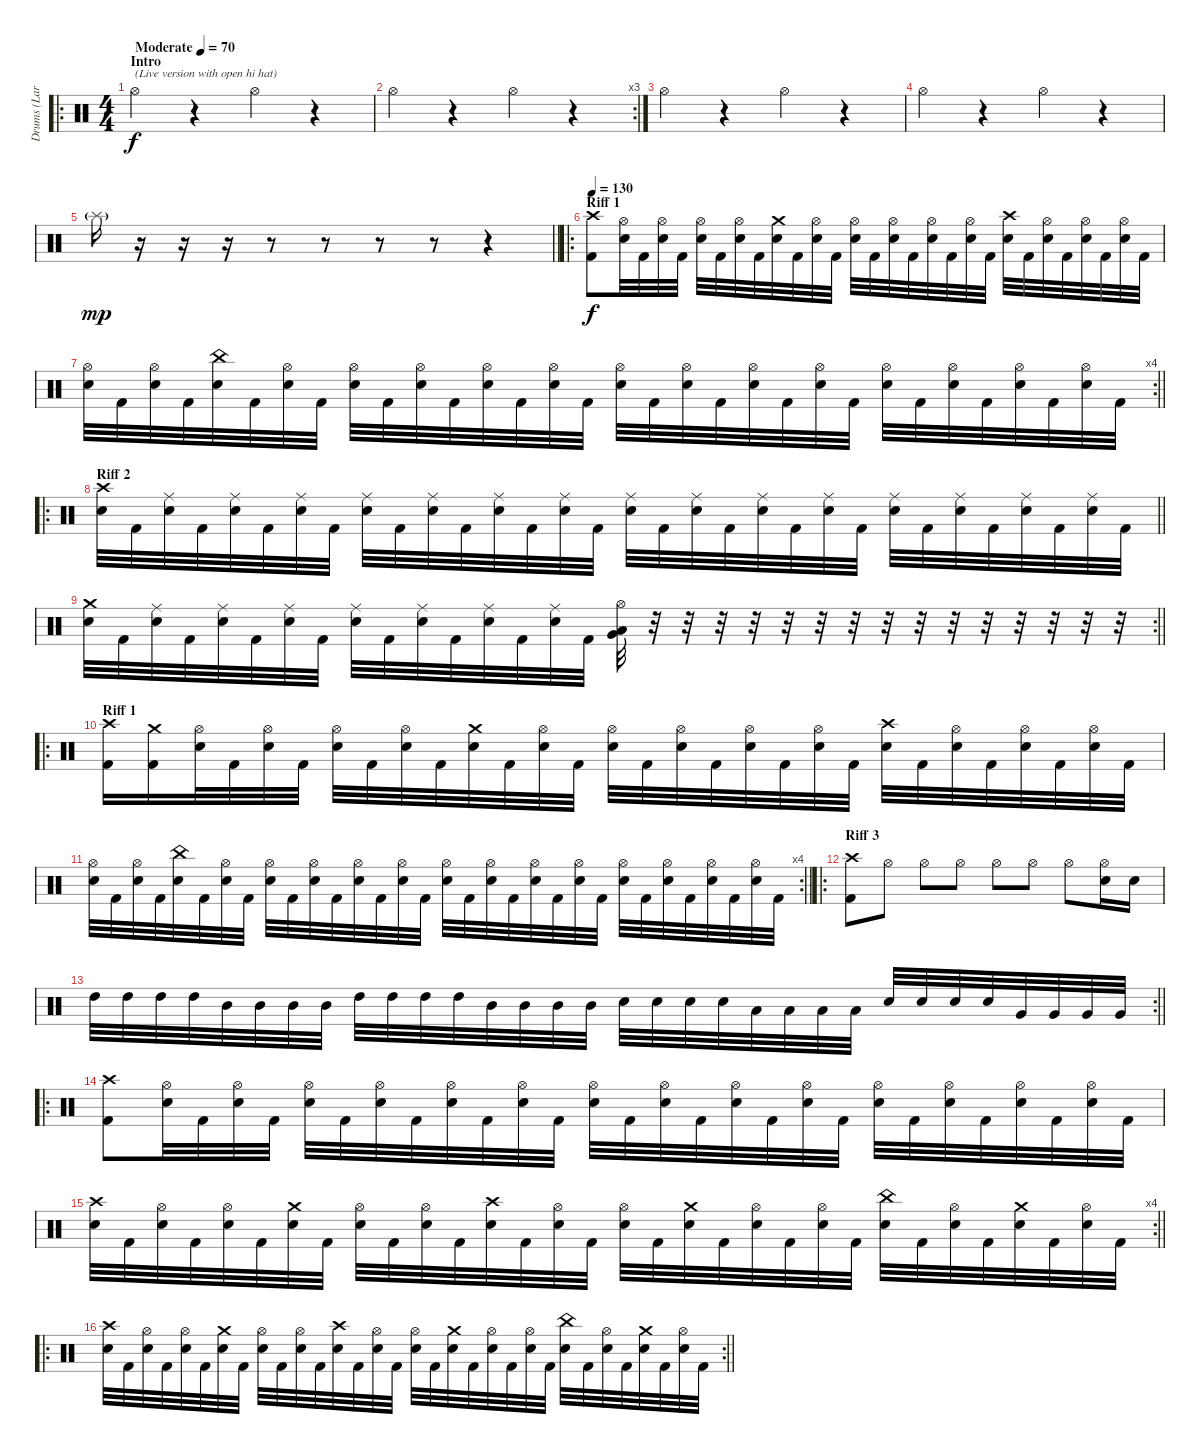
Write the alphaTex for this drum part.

\track ("Drums (Lars)" "Drums (Lar") {instrument percussion}
\staff {score}
\articulation defaults
\ro
\ts (4 4)
\section ("" "Intro")
\tempo (70 "Moderate")
\clef neutral
\ks c "Hi-Hat (open)".4{txt "(Live version with open hi hat)" dy f volume 0}
r.4 "Hi-Hat (open)".4 r.4 |
\rc 3 "Hi-Hat (open)".4
r.4 "Hi-Hat (open)".4 r.4 |
"Hi-Hat (open)".4 r.4 "Hi-Hat (open)".4 r.4 |
"Hi-Hat (open)".4 r.4 "Hi-Hat (open)".4 r.4 |
\barLineRight lightlight "Splash (hit)"{g}.16{dy mp volume 13}
r.16 r.16 r.16 r.8 r.8 r.8 r.8 r.4 |
\ro
\section ("" "Riff 1")
\tempo 130
("Crash high (hit)" "Kick (hit) 2").8{dy f} ("Hi-Hat (open)" "Snare (hit) 2").32 "Kick (hit) 2".32 ("Hi-Hat (open)" "Snare (hit) 2").32 "Kick (hit) 2".32 ("Hi-Hat (open)" "Snare (hit) 2").32 "Kick (hit) 2".32 ("Hi-Hat (open)" "Snare (hit) 2").32 "Kick (hit) 2".32 ("Crash medium (hit)" "Snare (hit) 2").32 "Kick (hit) 2".32 ("Hi-Hat (open)" "Snare (hit) 2").32 "Kick (hit) 2".32 ("Hi-Hat (open)" "Snare (hit) 2").32 "Kick (hit) 2".32 ("Hi-Hat (open)" "Snare (hit) 2").32 "Kick (hit) 2".32 ("Hi-Hat (open)" "Snare (hit) 2").32 "Kick (hit) 2".32 ("Hi-Hat (open)" "Snare (hit) 2").32 "Kick (hit) 2".32 ("Crash high (hit)" "Snare (hit) 2").32 "Kick (hit) 2".32 ("Hi-Hat (open)" "Snare (hit) 2").32 "Kick (hit) 2".32 ("Hi-Hat (open)" "Snare (hit) 2").32 "Kick (hit) 2".32 ("Hi-Hat (open)" "Snare (hit) 2").32 "Kick (hit) 2".32 |
\rc 4
\barLineRight lightlight
("Hi-Hat (open)" "Snare (hit) 2").32 "Kick (hit) 2".32 ("Hi-Hat (open)" "Snare (hit) 2").32 "Kick (hit) 2".32 ("China (hit)" "Snare (hit) 2").32 "Kick (hit) 2".32 ("Hi-Hat (open)" "Snare (hit) 2").32 "Kick (hit) 2".32 ("Hi-Hat (open)" "Snare (hit) 2").32 "Kick (hit) 2".32 ("Hi-Hat (open)" "Snare (hit) 2").32 "Kick (hit) 2".32 ("Hi-Hat (open)" "Snare (hit) 2").32 "Kick (hit) 2".32 ("Hi-Hat (open)" "Snare (hit) 2").32 "Kick (hit) 2".32 ("Hi-Hat (open)" "Snare (hit) 2").32 "Kick (hit) 2".32 ("Hi-Hat (open)" "Snare (hit) 2").32 "Kick (hit) 2".32 ("Hi-Hat (open)" "Snare (hit) 2").32 "Kick (hit) 2".32 ("Hi-Hat (open)" "Snare (hit) 2").32 "Kick (hit) 2".32 ("Hi-Hat (open)" "Snare (hit) 2").32 "Kick (hit) 2".32 ("Hi-Hat (open)" "Snare (hit) 2").32 "Kick (hit) 2".32 ("Hi-Hat (open)" "Snare (hit) 2").32 "Kick (hit) 2".32 ("Hi-Hat (open)" "Snare (hit) 2").32 "Kick (hit) 2".32 |
\ro
\section ("" "Riff 2")
\barLineRight lightlight
("Crash high (hit)" "Snare (hit) 2").32 "Kick (hit) 2".32 ("Ride (middle)" "Snare (hit) 2").32 "Kick (hit) 2".32 ("Ride (middle)" "Snare (hit) 2").32 "Kick (hit) 2".32 ("Ride (middle)" "Snare (hit) 2").32 "Kick (hit) 2".32 ("Ride (middle)" "Snare (hit) 2").32 "Kick (hit) 2".32 ("Ride (middle)" "Snare (hit) 2").32 "Kick (hit) 2".32 ("Ride (middle)" "Snare (hit) 2").32 "Kick (hit) 2".32 ("Ride (middle)" "Snare (hit) 2").32 "Kick (hit) 2".32 ("Ride (middle)" "Snare (hit) 2").32 "Kick (hit) 2".32 ("Ride (middle)" "Snare (hit) 2").32 "Kick (hit) 2".32 ("Ride (middle)" "Snare (hit) 2").32 "Kick (hit) 2".32 ("Ride (middle)" "Snare (hit) 2").32 "Kick (hit) 2".32 ("Ride (middle)" "Snare (hit) 2").32 "Kick (hit) 2".32 ("Ride (middle)" "Snare (hit) 2").32 "Kick (hit) 2".32 ("Ride (middle)" "Snare (hit) 2").32 "Kick (hit) 2".32 ("Ride (middle)" "Snare (hit) 2").32 "Kick (hit) 2".32 |
\rc 2
\barLineRight lightlight
("Crash medium (hit)" "Snare (hit) 2").32 "Kick (hit) 2".32 ("Ride (middle)" "Snare (hit) 2").32 "Kick (hit) 2".32 ("Ride (middle)" "Snare (hit) 2").32 "Kick (hit) 2".32 ("Ride (middle)" "Snare (hit) 2").32 "Kick (hit) 2".32 ("Ride (middle)" "Snare (hit) 2").32 "Kick (hit) 2".32 ("Ride (middle)" "Snare (hit) 2").32 "Kick (hit) 2".32 ("Ride (middle)" "Snare (hit) 2").32 "Kick (hit) 2".32 ("Ride (middle)" "Snare (hit) 2").32 "Kick (hit) 2".32 ("Hi-Hat (open)" "Very Low Tom (hit)" "Low Floor Tom (hit)").32 r.32 r.32 r.32 r.32 r.32 r.32 r.32 r.32 r.32 r.32 r.32 r.32 r.32 r.32 r.32 |
\ro
\section ("" "Riff 1")
("Crash high (hit)" "Kick (hit) 2").16 ("Crash medium (hit)" "Kick (hit) 2").16 ("Hi-Hat (open)" "Snare (hit) 2").32 "Kick (hit) 2".32 ("Hi-Hat (open)" "Snare (hit) 2").32 "Kick (hit) 2".32 ("Hi-Hat (open)" "Snare (hit) 2").32 "Kick (hit) 2".32 ("Hi-Hat (open)" "Snare (hit) 2").32 "Kick (hit) 2".32 ("Crash medium (hit)" "Snare (hit) 2").32 "Kick (hit) 2".32 ("Hi-Hat (open)" "Snare (hit) 2").32 "Kick (hit) 2".32 ("Hi-Hat (open)" "Snare (hit) 2").32 "Kick (hit) 2".32 ("Hi-Hat (open)" "Snare (hit) 2").32 "Kick (hit) 2".32 ("Hi-Hat (open)" "Snare (hit) 2").32 "Kick (hit) 2".32 ("Hi-Hat (open)" "Snare (hit) 2").32 "Kick (hit) 2".32 ("Crash high (hit)" "Snare (hit) 2").32 "Kick (hit) 2".32 ("Hi-Hat (open)" "Snare (hit) 2").32 "Kick (hit) 2".32 ("Hi-Hat (open)" "Snare (hit) 2").32 "Kick (hit) 2".32 ("Hi-Hat (open)" "Snare (hit) 2").32 "Kick (hit) 2".32 |
\rc 4
\barLineRight lightlight
("Hi-Hat (open)" "Snare (hit) 2").32 "Kick (hit) 2".32 ("Hi-Hat (open)" "Snare (hit) 2").32 "Kick (hit) 2".32 ("China (hit)" "Snare (hit) 2").32 "Kick (hit) 2".32 ("Hi-Hat (open)" "Snare (hit) 2").32 "Kick (hit) 2".32 ("Hi-Hat (open)" "Snare (hit) 2").32 "Kick (hit) 2".32 ("Hi-Hat (open)" "Snare (hit) 2").32 "Kick (hit) 2".32 ("Hi-Hat (open)" "Snare (hit) 2").32 "Kick (hit) 2".32 ("Hi-Hat (open)" "Snare (hit) 2").32 "Kick (hit) 2".32 ("Hi-Hat (open)" "Snare (hit) 2").32 "Kick (hit) 2".32 ("Hi-Hat (open)" "Snare (hit) 2").32 "Kick (hit) 2".32 ("Hi-Hat (open)" "Snare (hit) 2").32 "Kick (hit) 2".32 ("Hi-Hat (open)" "Snare (hit) 2").32 "Kick (hit) 2".32 ("Hi-Hat (open)" "Snare (hit) 2").32 "Kick (hit) 2".32 ("Hi-Hat (open)" "Snare (hit) 2").32 "Kick (hit) 2".32 ("Hi-Hat (open)" "Snare (hit) 2").32 "Kick (hit) 2".32 ("Hi-Hat (open)" "Snare (hit) 2").32 "Kick (hit) 2".32 |
\ro
\section ("" "Riff 3")
("Crash high (hit)" "Kick (hit) 2").8 "Hi-Hat (open)".8 "Hi-Hat (open)".8 "Hi-Hat (open)".8 "Hi-Hat (open)".8 "Hi-Hat (open)".8 "Hi-Hat (open)".8 ("Hi-Hat (open)" "Snare (hit) 2").16 "Snare (hit) 2".16 |
\rc 2
\barLineRight lightlight "High Tom (hit)".32 "High Tom (hit)".32 "High Tom (hit)".32 "High Tom (hit)".32 "Mid Tom (hit)".32 "Mid Tom (hit)".32 "Mid Tom (hit)".32 "Mid Tom (hit)".32 "High Tom (hit)".32 "High Tom (hit)".32 "High Tom (hit)".32 "High Tom (hit)".32 "Mid Tom (hit)".32 "Mid Tom (hit)".32 "Mid Tom (hit)".32 "Mid Tom (hit)".32 "Snare (hit) 2".32 "Snare (hit) 2".32 "Snare (hit) 2".32 "Snare (hit) 2".32 "Low Tom (hit)".32 "Low Tom (hit)".32 "Low Tom (hit)".32 "Low Tom (hit)".32 "Snare (hit) 2".32 "Snare (hit) 2".32 "Snare (hit) 2".32 "Snare (hit) 2".32 "Very Low Tom (hit)".32 "Very Low Tom (hit)".32 "Very Low Tom (hit)".32 "Very Low Tom (hit)".32
|
\ro
("Crash high (hit)" "Kick (hit) 2").8 ("Hi-Hat (open)" "Snare (hit) 2").32 "Kick (hit) 2".32 ("Hi-Hat (open)" "Snare (hit) 2").32 "Kick (hit) 2".32 ("Hi-Hat (open)" "Snare (hit) 2").32 "Kick (hit) 2".32 ("Hi-Hat (open)" "Snare (hit) 2").32 "Kick (hit) 2".32 ("Hi-Hat (open)" "Snare (hit) 2").32 "Kick (hit) 2".32 ("Hi-Hat (open)" "Snare (hit) 2").32 "Kick (hit) 2".32 ("Hi-Hat (open)" "Snare (hit) 2").32 "Kick (hit) 2".32 ("Hi-Hat (open)" "Snare (hit) 2").32 "Kick (hit) 2".32 ("Hi-Hat (open)" "Snare (hit) 2").32 "Kick (hit) 2".32 ("Hi-Hat (open)" "Snare (hit) 2").32 "Kick (hit) 2".32 ("Hi-Hat (open)" "Snare (hit) 2").32 "Kick (hit) 2".32 ("Hi-Hat (open)" "Snare (hit) 2").32 "Kick (hit) 2".32 ("Hi-Hat (open)" "Snare (hit) 2").32 "Kick (hit) 2".32 ("Hi-Hat (open)" "Snare (hit) 2").32 "Kick (hit) 2".32 |
\rc 4
\barLineRight lightlight
("Crash high (hit)" "Snare (hit) 2").32 "Kick (hit) 2".32 ("Hi-Hat (open)" "Snare (hit) 2").32 "Kick (hit) 2".32 ("Hi-Hat (open)" "Snare (hit) 2").32 "Kick (hit) 2".32 ("Crash medium (hit)" "Snare (hit) 2").32 "Kick (hit) 2".32 ("Hi-Hat (open)" "Snare (hit) 2").32 "Kick (hit) 2".32 ("Hi-Hat (open)" "Snare (hit) 2").32 "Kick (hit) 2".32 ("Crash high (hit)" "Snare (hit) 2").32 "Kick (hit) 2".32 ("Hi-Hat (open)" "Snare (hit) 2").32 "Kick (hit) 2".32 ("Hi-Hat (open)" "Snare (hit) 2").32 "Kick (hit) 2".32 ("Crash medium (hit)" "Snare (hit) 2").32 "Kick (hit) 2".32 ("Hi-Hat (open)" "Snare (hit) 2").32 "Kick (hit) 2".32 ("Hi-Hat (open)" "Snare (hit) 2").32 "Kick (hit) 2".32 ("China (hit)" "Snare (hit) 2").32 "Kick (hit) 2".32 ("Hi-Hat (open)" "Snare (hit) 2").32 "Kick (hit) 2".32 ("Crash medium (hit)" "Snare (hit) 2").32 "Kick (hit) 2".32 ("Hi-Hat (open)" "Snare (hit) 2").32 "Kick (hit) 2".32 |
\ro
\rc 2
\section ("" "")
\barLineRight lightlight
("Crash high (hit)" "Snare (hit) 2").32 "Kick (hit) 2".32 ("Hi-Hat (open)" "Snare (hit) 2").32 "Kick (hit) 2".32 ("Hi-Hat (open)" "Snare (hit) 2").32 "Kick (hit) 2".32 ("Crash medium (hit)" "Snare (hit) 2").32 "Kick (hit) 2".32 ("Hi-Hat (open)" "Snare (hit) 2").32 "Kick (hit) 2".32 ("Hi-Hat (open)" "Snare (hit) 2").32 "Kick (hit) 2".32 ("Crash high (hit)" "Snare (hit) 2").32 "Kick (hit) 2".32 ("Hi-Hat (open)" "Snare (hit) 2").32 "Kick (hit) 2".32 ("Hi-Hat (open)" "Snare (hit) 2").32 "Kick (hit) 2".32 ("Crash medium (hit)" "Snare (hit) 2").32 "Kick (hit) 2".32 ("Hi-Hat (open)" "Snare (hit) 2").32 "Kick (hit) 2".32 ("Hi-Hat (open)" "Snare (hit) 2").32 "Kick (hit) 2".32 ("China (hit)" "Snare (hit) 2").32 "Kick (hit) 2".32 ("Hi-Hat (open)" "Snare (hit) 2").32 "Kick (hit) 2".32 ("Crash medium (hit)" "Snare (hit) 2").32 "Kick (hit) 2".32 ("Hi-Hat (open)" "Snare (hit) 2").32 "Kick (hit) 2".32
